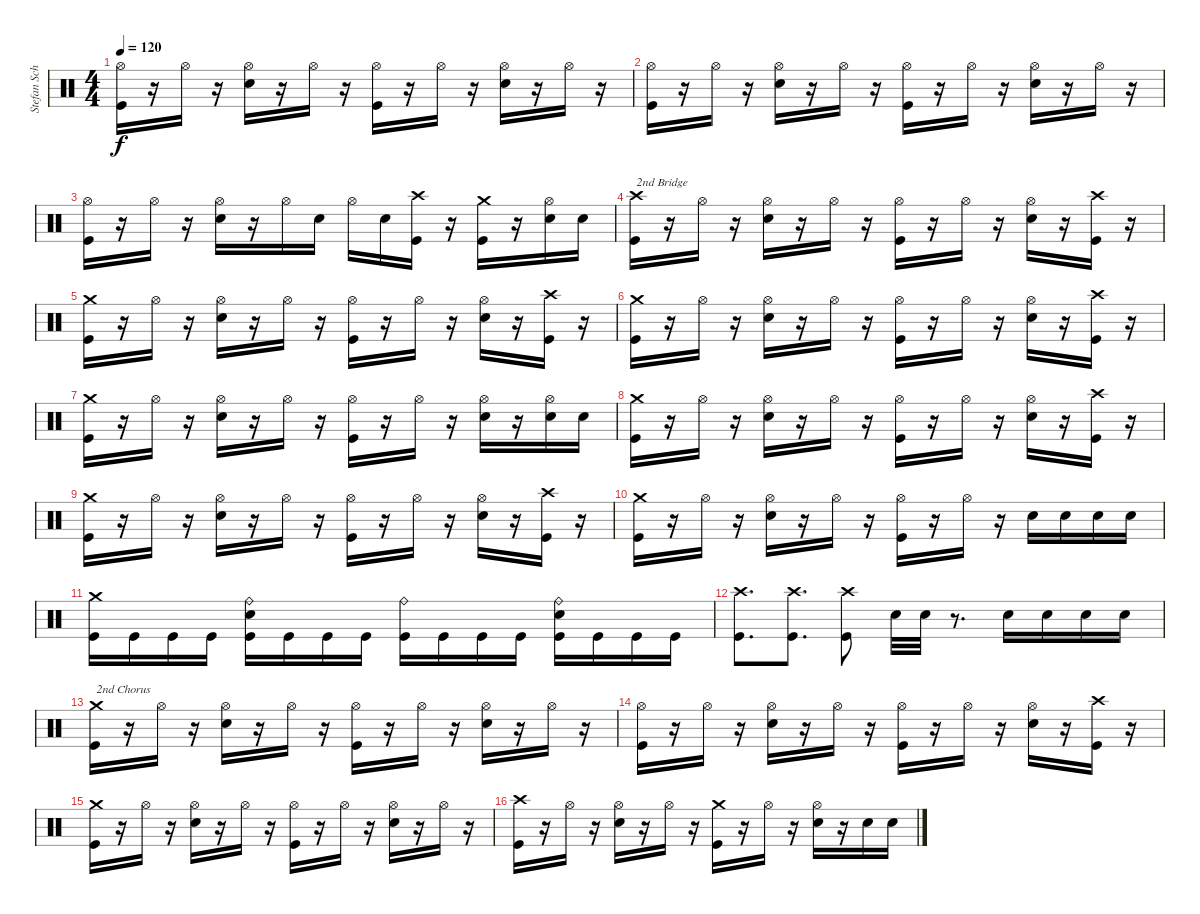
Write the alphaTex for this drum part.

\track ("Stefan Schwarzmann" "Stefan Sch") {instrument percussion}
\staff {score}
\articulation defaults
\ts (4 4)
\tempo 120
\clef neutral
\ks c
("Kick (hit)" "Hi-Hat (open)").16{dy f} r.16 "Hi-Hat (open)".16 r.16 ("Snare (hit) 2" "Hi-Hat (open)").16 r.16 "Hi-Hat (open)".16 r.16 ("Kick (hit)" "Hi-Hat (open)").16 r.16 "Hi-Hat (open)".16 r.16 ("Snare (hit) 2" "Hi-Hat (open)").16 r.16 "Hi-Hat (open)".16 r.16 |
("Kick (hit)" "Hi-Hat (open)").16 r.16 "Hi-Hat (open)".16 r.16 ("Snare (hit) 2" "Hi-Hat (open)").16 r.16 "Hi-Hat (open)".16 r.16 ("Kick (hit)" "Hi-Hat (open)").16 r.16 "Hi-Hat (open)".16 r.16 ("Snare (hit) 2" "Hi-Hat (open)").16 r.16 "Hi-Hat (open)".16 r.16 |
("Kick (hit)" "Hi-Hat (open)").16 r.16 "Hi-Hat (open)".16 r.16 ("Snare (hit) 2" "Hi-Hat (open)").16 r.16 "Hi-Hat (open)".16 "Snare (hit) 2".16 "Hi-Hat (open)".16 "Snare (hit) 2".16 ("Crash high (hit)" "Kick (hit)").16 r.16 ("Crash medium (hit)" "Kick (hit)").16 r.16 ("Hi-Hat (open)" "Snare (hit) 2").16 "Snare (hit) 2".16 |
("Kick (hit)" "Crash high (hit)").16{txt "2nd Bridge"} r.16 "Hi-Hat (open)".16 r.16 ("Snare (hit) 2" "Hi-Hat (open)").16 r.16 "Hi-Hat (open)".16 r.16 ("Kick (hit)" "Hi-Hat (open)").16 r.16 "Hi-Hat (open)".16 r.16 ("Snare (hit) 2" "Hi-Hat (open)").16 r.16 ("Crash high (hit)" "Kick (hit)").16 r.16 |
("Kick (hit)" "Crash medium (hit)").16 r.16 "Hi-Hat (open)".16 r.16 ("Snare (hit) 2" "Hi-Hat (open)").16 r.16 "Hi-Hat (open)".16 r.16 ("Kick (hit)" "Hi-Hat (open)").16 r.16 "Hi-Hat (open)".16 r.16 ("Snare (hit) 2" "Hi-Hat (open)").16 r.16 ("Crash high (hit)" "Kick (hit)").16 r.16 |
("Kick (hit)" "Crash medium (hit)").16 r.16 "Hi-Hat (open)".16 r.16 ("Snare (hit) 2" "Hi-Hat (open)").16 r.16 "Hi-Hat (open)".16 r.16 ("Kick (hit)" "Hi-Hat (open)").16 r.16 "Hi-Hat (open)".16 r.16 ("Snare (hit) 2" "Hi-Hat (open)").16 r.16 ("Crash high (hit)" "Kick (hit)").16 r.16 |
("Kick (hit)" "Crash medium (hit)").16 r.16 "Hi-Hat (open)".16 r.16 ("Snare (hit) 2" "Hi-Hat (open)").16 r.16 "Hi-Hat (open)".16 r.16 ("Kick (hit)" "Hi-Hat (open)").16 r.16 "Hi-Hat (open)".16 r.16 ("Snare (hit) 2" "Hi-Hat (open)").16 r.16 ("Hi-Hat (open)" "Snare (hit) 2").16 "Snare (hit) 2".16 |
("Kick (hit)" "Crash medium (hit)").16 r.16 "Hi-Hat (open)".16 r.16 ("Snare (hit) 2" "Hi-Hat (open)").16 r.16 "Hi-Hat (open)".16 r.16 ("Kick (hit)" "Hi-Hat (open)").16 r.16 "Hi-Hat (open)".16 r.16 ("Snare (hit) 2" "Hi-Hat (open)").16 r.16 ("Crash high (hit)" "Kick (hit)").16 r.16 |
("Kick (hit)" "Crash medium (hit)").16 r.16 "Hi-Hat (open)".16 r.16 ("Snare (hit) 2" "Hi-Hat (open)").16 r.16 "Hi-Hat (open)".16 r.16 ("Kick (hit)" "Hi-Hat (open)").16 r.16 "Hi-Hat (open)".16 r.16 ("Snare (hit) 2" "Hi-Hat (open)").16 r.16 ("Crash high (hit)" "Kick (hit)").16 r.16 |
("Kick (hit)" "Crash medium (hit)").16 r.16 "Hi-Hat (open)".16 r.16 ("Snare (hit) 2" "Hi-Hat (open)").16 r.16 "Hi-Hat (open)".16 r.16 ("Kick (hit)" "Hi-Hat (open)").16 r.16 "Hi-Hat (open)".16 r.16 "Snare (hit) 2".16 "Snare (hit) 2".16 "Snare (hit) 2".16 "Snare (hit) 2".16 |
("Kick (hit)" "Crash medium (hit)").16 "Kick (hit)".16 "Kick (hit)".16 "Kick (hit)".16 ("Snare (hit) 2" "Kick (hit)" "Ride (bell)").16 "Kick (hit)".16 "Kick (hit)".16 "Kick (hit)".16 ("Kick (hit)" "Ride (bell)").16 "Kick (hit)".16 "Kick (hit)".16 "Kick (hit)".16 ("Snare (hit) 2" "Kick (hit)" "Ride (bell)").16 "Kick (hit)".16 "Kick (hit)".16 "Kick (hit)".16 |
("Kick (hit)" "Crash high (hit)").8{d} ("Kick (hit)" "Crash high (hit)").8{d} ("Kick (hit)" "Crash high (hit)").8 "Snare (hit) 2".32 "Snare (hit) 2".32 r.8{d} "Snare (hit) 2".16 "Snare (hit) 2".16 "Snare (hit) 2".16 "Snare (hit) 2".16 |
("Kick (hit)" "Crash medium (hit)").16{txt "2nd Chorus"} r.16 "Hi-Hat (open)".16 r.16 ("Snare (hit) 2" "Hi-Hat (open)").16 r.16 "Hi-Hat (open)".16 r.16 ("Kick (hit)" "Hi-Hat (open)").16 r.16 "Hi-Hat (open)".16 r.16 ("Snare (hit) 2" "Hi-Hat (open)").16 r.16 "Hi-Hat (open)".16 r.16 |
("Kick (hit)" "Hi-Hat (open)").16 r.16 "Hi-Hat (open)".16 r.16 ("Snare (hit) 2" "Hi-Hat (open)").16 r.16 "Hi-Hat (open)".16 r.16 ("Kick (hit)" "Hi-Hat (open)").16 r.16 "Hi-Hat (open)".16 r.16 ("Snare (hit) 2" "Hi-Hat (open)").16 r.16 ("Crash high (hit)" "Kick (hit)").16 r.16 |
("Kick (hit)" "Crash medium (hit)").16 r.16 "Hi-Hat (open)".16 r.16 ("Snare (hit) 2" "Hi-Hat (open)").16 r.16 "Hi-Hat (open)".16 r.16 ("Kick (hit)" "Hi-Hat (open)").16 r.16 "Hi-Hat (open)".16 r.16 ("Snare (hit) 2" "Hi-Hat (open)").16 r.16 "Hi-Hat (open)".16 r.16 |
("Kick (hit)" "Crash high (hit)").16 r.16 "Hi-Hat (open)".16 r.16 ("Snare (hit) 2" "Hi-Hat (open)").16 r.16 "Hi-Hat (open)".16 r.16 ("Kick (hit)" "Crash medium (hit)").16 r.16 "Hi-Hat (open)".16 r.16 ("Snare (hit) 2" "Hi-Hat (open)").16 r.16 "Snare (hit) 2".16 "Snare (hit) 2".16
